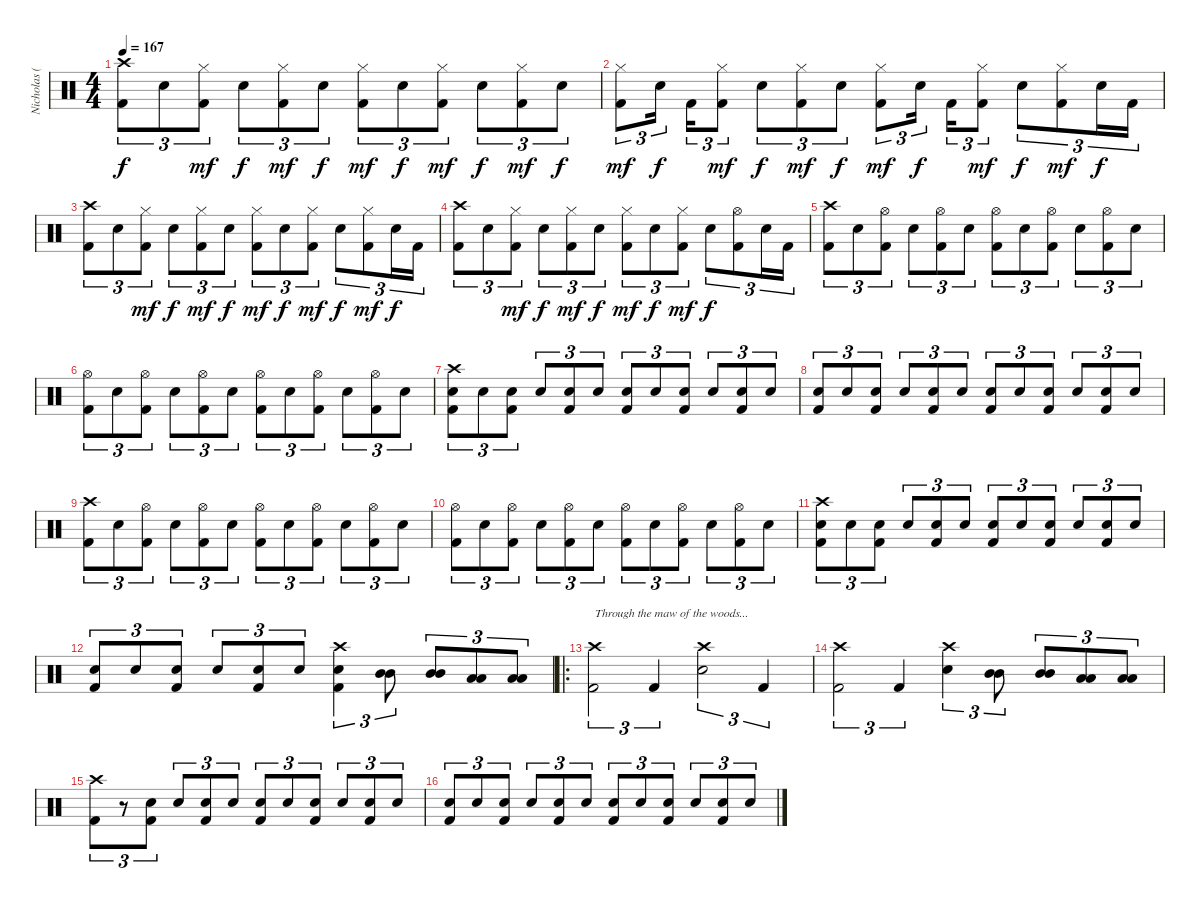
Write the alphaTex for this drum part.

\track ("Nicholas (Drums)" "Nicholas (") {instrument percussion}
\staff {score}
\articulation defaults
\ts (4 4)
\tempo 167
\clef neutral
\ks c
("Crash high (hit)" "Kick (hit) 2").8{tu (3 2) dy f} "Electric Snare (hit)".8{tu (3 2)} ("Hi-Hat (closed)" "Kick (hit) 2").8{tu (3 2) dy mf} "Electric Snare (hit)".8{tu (3 2) dy f} ("Hi-Hat (closed)" "Kick (hit) 2").8{tu (3 2) dy mf} "Electric Snare (hit)".8{tu (3 2) dy f} ("Hi-Hat (closed)" "Kick (hit) 2").8{tu (3 2) dy mf} "Electric Snare (hit)".8{tu (3 2) dy f} ("Hi-Hat (closed)" "Kick (hit) 2").8{tu (3 2) dy mf} "Electric Snare (hit)".8{tu (3 2) dy f} ("Hi-Hat (closed)" "Kick (hit) 2").8{tu (3 2) dy mf} "Electric Snare (hit)".8{tu (3 2) dy f} |
("Hi-Hat (closed)" "Kick (hit) 2").8{tu (3 2) dy mf} "Electric Snare (hit)".16{tu (3 2) dy f} "Kick (hit) 2".16{tu (3 2)} ("Hi-Hat (closed)" "Kick (hit) 2").8{tu (3 2) dy mf} "Electric Snare (hit)".8{tu (3 2) dy f} ("Hi-Hat (closed)" "Kick (hit) 2").8{tu (3 2) dy mf} "Electric Snare (hit)".8{tu (3 2) dy f} ("Hi-Hat (closed)" "Kick (hit) 2").8{tu (3 2) dy mf} "Electric Snare (hit)".16{tu (3 2) dy f} "Kick (hit) 2".16{tu (3 2)} ("Hi-Hat (closed)" "Kick (hit) 2").8{tu (3 2) dy mf} "Electric Snare (hit)".8{tu (3 2) dy f} ("Hi-Hat (closed)" "Kick (hit) 2").8{tu (3 2) dy mf} "Electric Snare (hit)".16{tu (3 2) dy f} "Kick (hit) 2".16{tu (3 2)} |
("Crash high (hit)" "Kick (hit) 2").8{tu (3 2)} "Electric Snare (hit)".8{tu (3 2)} ("Hi-Hat (closed)" "Kick (hit) 2").8{tu (3 2) dy mf} "Electric Snare (hit)".8{tu (3 2) dy f} ("Hi-Hat (closed)" "Kick (hit) 2").8{tu (3 2) dy mf} "Electric Snare (hit)".8{tu (3 2) dy f} ("Hi-Hat (closed)" "Kick (hit) 2").8{tu (3 2) dy mf} "Electric Snare (hit)".8{tu (3 2) dy f} ("Hi-Hat (closed)" "Kick (hit) 2").8{tu (3 2) dy mf} "Electric Snare (hit)".8{tu (3 2) dy f} ("Hi-Hat (closed)" "Kick (hit) 2").8{tu (3 2) dy mf} "Electric Snare (hit)".16{tu (3 2) dy f} "Kick (hit) 2".16{tu (3 2)} |
("Crash high (hit)" "Kick (hit) 2").8{tu (3 2)} "Electric Snare (hit)".8{tu (3 2)} ("Hi-Hat (closed)" "Kick (hit) 2").8{tu (3 2) dy mf} "Electric Snare (hit)".8{tu (3 2) dy f} ("Hi-Hat (closed)" "Kick (hit) 2").8{tu (3 2) dy mf} "Electric Snare (hit)".8{tu (3 2) dy f} ("Hi-Hat (closed)" "Kick (hit) 2").8{tu (3 2) dy mf} "Electric Snare (hit)".8{tu (3 2) dy f} ("Hi-Hat (closed)" "Kick (hit) 2").8{tu (3 2) dy mf} "Electric Snare (hit)".8{tu (3 2) dy f} ("Hi-Hat (open)" "Kick (hit) 2").8{tu (3 2)} "Electric Snare (hit)".16{tu (3 2)} "Kick (hit) 2".16{tu (3 2)} |
("Crash high (hit)" "Kick (hit) 2").8{tu (3 2)} "Electric Snare (hit)".8{tu (3 2)} ("Hi-Hat (open)" "Kick (hit) 2").8{tu (3 2)} "Electric Snare (hit)".8{tu (3 2)} ("Hi-Hat (open)" "Kick (hit) 2").8{tu (3 2)} "Electric Snare (hit)".8{tu (3 2)} ("Hi-Hat (open)" "Kick (hit) 2").8{tu (3 2)} "Electric Snare (hit)".8{tu (3 2)} ("Hi-Hat (open)" "Kick (hit) 2").8{tu (3 2)} "Electric Snare (hit)".8{tu (3 2)} ("Hi-Hat (open)" "Kick (hit) 2").8{tu (3 2)} "Electric Snare (hit)".8{tu (3 2)} |
("Hi-Hat (open)" "Kick (hit) 2").8{tu (3 2)} "Electric Snare (hit)".8{tu (3 2)} ("Hi-Hat (open)" "Kick (hit) 2").8{tu (3 2)} "Electric Snare (hit)".8{tu (3 2)} ("Hi-Hat (open)" "Kick (hit) 2").8{tu (3 2)} "Electric Snare (hit)".8{tu (3 2)} ("Hi-Hat (open)" "Kick (hit) 2").8{tu (3 2)} "Electric Snare (hit)".8{tu (3 2)} ("Hi-Hat (open)" "Kick (hit) 2").8{tu (3 2)} "Electric Snare (hit)".8{tu (3 2)} ("Hi-Hat (open)" "Kick (hit) 2").8{tu (3 2)} "Electric Snare (hit)".8{tu (3 2)} |
("Crash high (hit)" "Electric Snare (hit)" "Kick (hit) 2").8{tu (3 2)} "Electric Snare (hit)".8{tu (3 2)} ("Electric Snare (hit)" "Kick (hit) 2").8{tu (3 2)} "Electric Snare (hit)".8{tu (3 2)} ("Electric Snare (hit)" "Kick (hit) 2").8{tu (3 2)} "Electric Snare (hit)".8{tu (3 2)} ("Electric Snare (hit)" "Kick (hit) 2").8{tu (3 2)} "Electric Snare (hit)".8{tu (3 2)} ("Electric Snare (hit)" "Kick (hit) 2").8{tu (3 2)} "Electric Snare (hit)".8{tu (3 2)} ("Electric Snare (hit)" "Kick (hit) 2").8{tu (3 2)} "Electric Snare (hit)".8{tu (3 2)} |
("Electric Snare (hit)" "Kick (hit) 2").8{tu (3 2)} "Electric Snare (hit)".8{tu (3 2)} ("Electric Snare (hit)" "Kick (hit) 2").8{tu (3 2)} "Electric Snare (hit)".8{tu (3 2)} ("Electric Snare (hit)" "Kick (hit) 2").8{tu (3 2)} "Electric Snare (hit)".8{tu (3 2)} ("Electric Snare (hit)" "Kick (hit) 2").8{tu (3 2)} "Electric Snare (hit)".8{tu (3 2)} ("Electric Snare (hit)" "Kick (hit) 2").8{tu (3 2)} "Electric Snare (hit)".8{tu (3 2)} ("Electric Snare (hit)" "Kick (hit) 2").8{tu (3 2)} "Electric Snare (hit)".8{tu (3 2)} |
("Crash high (hit)" "Kick (hit) 2").8{tu (3 2)} "Electric Snare (hit)".8{tu (3 2)} ("Hi-Hat (open)" "Kick (hit) 2").8{tu (3 2)} "Electric Snare (hit)".8{tu (3 2)} ("Hi-Hat (open)" "Kick (hit) 2").8{tu (3 2)} "Electric Snare (hit)".8{tu (3 2)} ("Hi-Hat (open)" "Kick (hit) 2").8{tu (3 2)} "Electric Snare (hit)".8{tu (3 2)} ("Hi-Hat (open)" "Kick (hit) 2").8{tu (3 2)} "Electric Snare (hit)".8{tu (3 2)} ("Hi-Hat (open)" "Kick (hit) 2").8{tu (3 2)} "Electric Snare (hit)".8{tu (3 2)} |
("Hi-Hat (open)" "Kick (hit) 2").8{tu (3 2)} "Electric Snare (hit)".8{tu (3 2)} ("Hi-Hat (open)" "Kick (hit) 2").8{tu (3 2)} "Electric Snare (hit)".8{tu (3 2)} ("Hi-Hat (open)" "Kick (hit) 2").8{tu (3 2)} "Electric Snare (hit)".8{tu (3 2)} ("Hi-Hat (open)" "Kick (hit) 2").8{tu (3 2)} "Electric Snare (hit)".8{tu (3 2)} ("Hi-Hat (open)" "Kick (hit) 2").8{tu (3 2)} "Electric Snare (hit)".8{tu (3 2)} ("Hi-Hat (open)" "Kick (hit) 2").8{tu (3 2)} "Electric Snare (hit)".8{tu (3 2)} |
("Crash high (hit)" "Electric Snare (hit)" "Kick (hit) 2").8{tu (3 2)} "Electric Snare (hit)".8{tu (3 2)} ("Electric Snare (hit)" "Kick (hit) 2").8{tu (3 2)} "Electric Snare (hit)".8{tu (3 2)} ("Electric Snare (hit)" "Kick (hit) 2").8{tu (3 2)} "Electric Snare (hit)".8{tu (3 2)} ("Electric Snare (hit)" "Kick (hit) 2").8{tu (3 2)} "Electric Snare (hit)".8{tu (3 2)} ("Electric Snare (hit)" "Kick (hit) 2").8{tu (3 2)} "Electric Snare (hit)".8{tu (3 2)} ("Electric Snare (hit)" "Kick (hit) 2").8{tu (3 2)} "Electric Snare (hit)".8{tu (3 2)} |
("Electric Snare (hit)" "Kick (hit) 2").8{tu (3 2)} "Electric Snare (hit)".8{tu (3 2)} ("Electric Snare (hit)" "Kick (hit) 2").8{tu (3 2)} "Electric Snare (hit)".8{tu (3 2)} ("Electric Snare (hit)" "Kick (hit) 2").8{tu (3 2)} "Electric Snare (hit)".8{tu (3 2)} ("Crash high (hit)" "Electric Snare (hit)" "Kick (hit) 2").4{tu (3 2)} ("Mid Tom (hit)" "Mid Tom (hit)").8{tu (3 2)} ("Mid Tom (hit)" "Mid Tom (hit)").8{tu (3 2)} ("Low Tom (hit)" "Low Tom (hit)").8{tu (3 2)} ("Low Tom (hit)" "Low Tom (hit)").8{tu (3 2)} |
\ro
("Crash high (hit)" "Kick (hit) 2").2{tu (3 2) txt "Through the maw of the woods..."} "Kick (hit) 2".4{tu (3 2)} ("Crash high (hit)" "Electric Snare (hit)").2{tu (3 2)} "Kick (hit) 2".4{tu (3 2)} |
("Crash high (hit)" "Kick (hit) 2").2{tu (3 2)} "Kick (hit) 2".4{tu (3 2)} ("Crash high (hit)" "Electric Snare (hit)").4{tu (3 2)} ("Mid Tom (hit)" "Mid Tom (hit)").8{tu (3 2) balance 6} ("Mid Tom (hit)" "Mid Tom (hit)").8{tu (3 2)} ("Low Tom (hit)" "Low Tom (hit)").8{tu (3 2) balance 8} ("Low Tom (hit)" "Low Tom (hit)").8{tu (3 2)} |
("Crash high (hit)" "Kick (hit) 2").8{tu (3 2)} r.8{tu (3 2)} ("Electric Snare (hit)" "Kick (hit) 2").8{tu (3 2)} "Electric Snare (hit)".8{tu (3 2)} ("Electric Snare (hit)" "Kick (hit) 2").8{tu (3 2)} "Electric Snare (hit)".8{tu (3 2)} ("Electric Snare (hit)" "Kick (hit) 2").8{tu (3 2)} "Electric Snare (hit)".8{tu (3 2)} ("Electric Snare (hit)" "Kick (hit) 2").8{tu (3 2)} "Electric Snare (hit)".8{tu (3 2)} ("Electric Snare (hit)" "Kick (hit) 2").8{tu (3 2)} "Electric Snare (hit)".8{tu (3 2)} |
("Electric Snare (hit)" "Kick (hit) 2").8{tu (3 2)} "Electric Snare (hit)".8{tu (3 2)} ("Electric Snare (hit)" "Kick (hit) 2").8{tu (3 2)} "Electric Snare (hit)".8{tu (3 2)} ("Electric Snare (hit)" "Kick (hit) 2").8{tu (3 2)} "Electric Snare (hit)".8{tu (3 2)} ("Electric Snare (hit)" "Kick (hit) 2").8{tu (3 2)} "Electric Snare (hit)".8{tu (3 2)} ("Electric Snare (hit)" "Kick (hit) 2").8{tu (3 2)} "Electric Snare (hit)".8{tu (3 2)} ("Electric Snare (hit)" "Kick (hit) 2").8{tu (3 2)} "Electric Snare (hit)".8{tu (3 2)}
